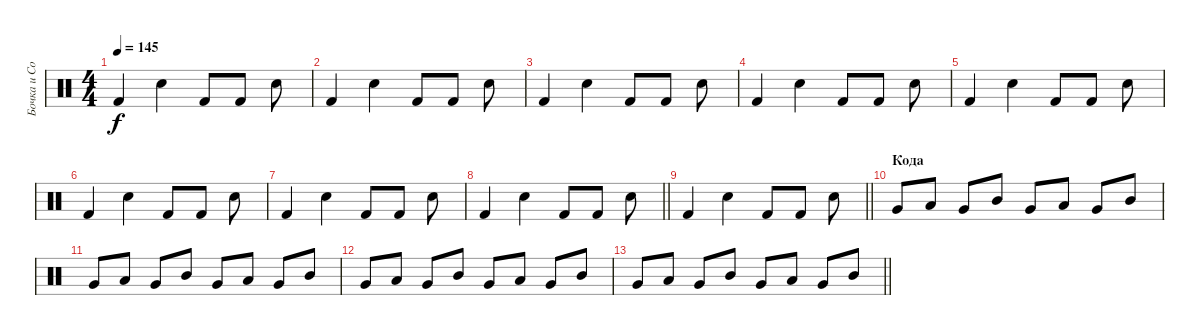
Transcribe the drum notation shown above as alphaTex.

\track ("Бочка и Сольник" "Бочка и Со") {instrument percussion}
\staff {score}
\articulation defaults
\ts (4 4)
\tempo 145
\clef neutral
\ks c "Kick (hit) 2".4{dy f} "Snare (hit) 2".4 "Kick (hit) 2".8 "Kick (hit) 2".8 "Snare (hit) 2".8
|
"Kick (hit) 2".4 "Snare (hit) 2".4 "Kick (hit) 2".8 "Kick (hit) 2".8 "Snare (hit) 2".8 |
"Kick (hit) 2".4 "Snare (hit) 2".4 "Kick (hit) 2".8 "Kick (hit) 2".8 "Snare (hit) 2".8 |
"Kick (hit) 2".4 "Snare (hit) 2".4 "Kick (hit) 2".8 "Kick (hit) 2".8 "Snare (hit) 2".8 |
"Kick (hit) 2".4 "Snare (hit) 2".4 "Kick (hit) 2".8 "Kick (hit) 2".8 "Snare (hit) 2".8 |
"Kick (hit) 2".4 "Snare (hit) 2".4 "Kick (hit) 2".8 "Kick (hit) 2".8 "Snare (hit) 2".8 |
"Kick (hit) 2".4 "Snare (hit) 2".4 "Kick (hit) 2".8 "Kick (hit) 2".8 "Snare (hit) 2".8 |
\barLineRight lightlight "Kick (hit) 2".4 "Snare (hit) 2".4 "Kick (hit) 2".8 "Kick (hit) 2".8 "Snare (hit) 2".8
|
\barLineRight lightlight "Kick (hit) 2".4 "Snare (hit) 2".4 "Kick (hit) 2".8 "Kick (hit) 2".8 "Snare (hit) 2".8
|
\section ("" "Кода")
"Very Low Tom (hit)".8 "Low Tom (hit)".8 "Very Low Tom (hit)".8 "Mid Tom (hit)".8 "Very Low Tom (hit)".8 "Low Tom (hit)".8 "Very Low Tom (hit)".8 "Mid Tom (hit)".8 |
"Very Low Tom (hit)".8 "Low Tom (hit)".8 "Very Low Tom (hit)".8 "Mid Tom (hit)".8 "Very Low Tom (hit)".8 "Low Tom (hit)".8 "Very Low Tom (hit)".8 "Mid Tom (hit)".8 |
"Very Low Tom (hit)".8 "Low Tom (hit)".8 "Very Low Tom (hit)".8 "Mid Tom (hit)".8 "Very Low Tom (hit)".8 "Low Tom (hit)".8 "Very Low Tom (hit)".8 "Mid Tom (hit)".8 |
\barLineRight lightlight "Very Low Tom (hit)".8 "Low Tom (hit)".8 "Very Low Tom (hit)".8 "Mid Tom (hit)".8 "Very Low Tom (hit)".8 "Low Tom (hit)".8 "Very Low Tom (hit)".8 "Mid Tom (hit)".8
